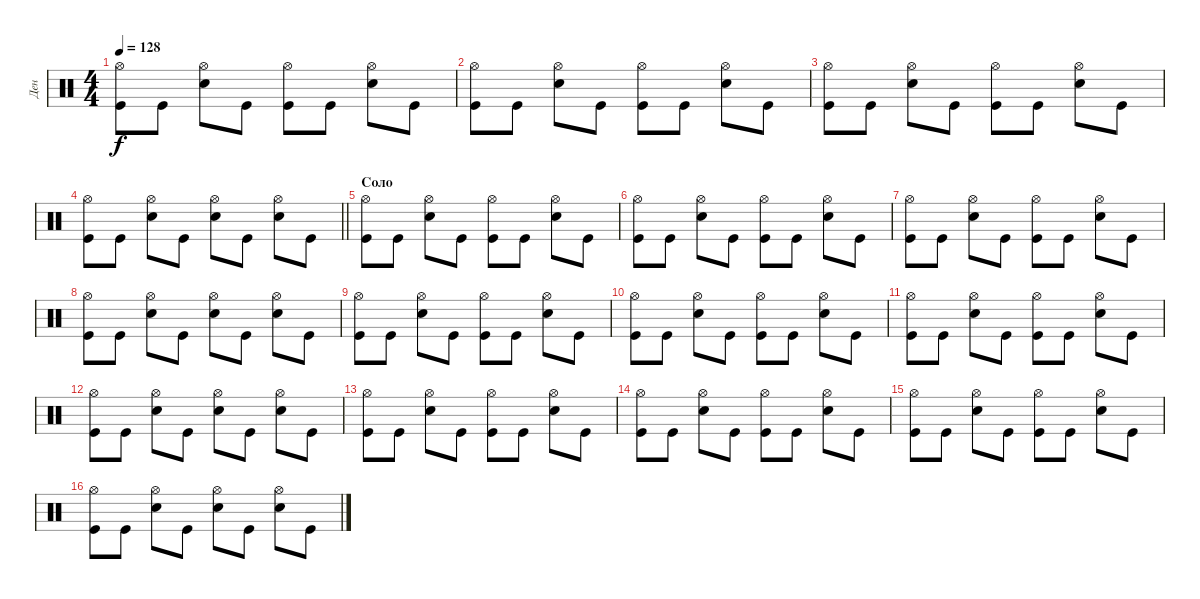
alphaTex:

\track ("Ден" "Ден") {instrument percussion}
\staff
\articulation defaults
\ts (4 4)
\tempo 128
\clef neutral
\ks c
("Kick (hit)" "Hi-Hat (open)").8{dy f} "Kick (hit)".8 ("Snare (hit) 2" "Hi-Hat (open)").8 "Kick (hit)".8 ("Kick (hit)" "Hi-Hat (open)").8 "Kick (hit)".8 ("Snare (hit) 2" "Hi-Hat (open)").8 "Kick (hit)".8 |
("Kick (hit)" "Hi-Hat (open)").8 "Kick (hit)".8 ("Snare (hit) 2" "Hi-Hat (open)").8 "Kick (hit)".8 ("Kick (hit)" "Hi-Hat (open)").8 "Kick (hit)".8 ("Snare (hit) 2" "Hi-Hat (open)").8 "Kick (hit)".8 |
("Kick (hit)" "Hi-Hat (open)").8 "Kick (hit)".8 ("Snare (hit) 2" "Hi-Hat (open)").8 "Kick (hit)".8 ("Kick (hit)" "Hi-Hat (open)").8 "Kick (hit)".8 ("Snare (hit) 2" "Hi-Hat (open)").8 "Kick (hit)".8 |
\barLineRight lightlight
("Kick (hit)" "Hi-Hat (open)").8 "Kick (hit)".8 ("Snare (hit) 2" "Hi-Hat (open)").8 "Kick (hit)".8 ("Snare (hit) 2" "Hi-Hat (open)").8 "Kick (hit)".8 ("Snare (hit) 2" "Hi-Hat (open)").8 "Kick (hit)".8 |
\section ("" "Соло")
("Kick (hit)" "Hi-Hat (open)").8 "Kick (hit)".8 ("Snare (hit) 2" "Hi-Hat (open)").8 "Kick (hit)".8 ("Kick (hit)" "Hi-Hat (open)").8 "Kick (hit)".8 ("Snare (hit) 2" "Hi-Hat (open)").8 "Kick (hit)".8 |
("Kick (hit)" "Hi-Hat (open)").8 "Kick (hit)".8 ("Snare (hit) 2" "Hi-Hat (open)").8 "Kick (hit)".8 ("Kick (hit)" "Hi-Hat (open)").8 "Kick (hit)".8 ("Snare (hit) 2" "Hi-Hat (open)").8 "Kick (hit)".8 |
("Kick (hit)" "Hi-Hat (open)").8 "Kick (hit)".8 ("Snare (hit) 2" "Hi-Hat (open)").8 "Kick (hit)".8 ("Kick (hit)" "Hi-Hat (open)").8 "Kick (hit)".8 ("Snare (hit) 2" "Hi-Hat (open)").8 "Kick (hit)".8 |
("Kick (hit)" "Hi-Hat (open)").8 "Kick (hit)".8 ("Snare (hit) 2" "Hi-Hat (open)").8 "Kick (hit)".8 ("Snare (hit) 2" "Hi-Hat (open)").8 "Kick (hit)".8 ("Snare (hit) 2" "Hi-Hat (open)").8 "Kick (hit)".8 |
("Kick (hit)" "Hi-Hat (open)").8 "Kick (hit)".8 ("Snare (hit) 2" "Hi-Hat (open)").8 "Kick (hit)".8 ("Kick (hit)" "Hi-Hat (open)").8 "Kick (hit)".8 ("Snare (hit) 2" "Hi-Hat (open)").8 "Kick (hit)".8 |
("Kick (hit)" "Hi-Hat (open)").8 "Kick (hit)".8 ("Snare (hit) 2" "Hi-Hat (open)").8 "Kick (hit)".8 ("Kick (hit)" "Hi-Hat (open)").8 "Kick (hit)".8 ("Snare (hit) 2" "Hi-Hat (open)").8 "Kick (hit)".8 |
("Kick (hit)" "Hi-Hat (open)").8 "Kick (hit)".8 ("Snare (hit) 2" "Hi-Hat (open)").8 "Kick (hit)".8 ("Kick (hit)" "Hi-Hat (open)").8 "Kick (hit)".8 ("Snare (hit) 2" "Hi-Hat (open)").8 "Kick (hit)".8 |
("Kick (hit)" "Hi-Hat (open)").8 "Kick (hit)".8 ("Snare (hit) 2" "Hi-Hat (open)").8 "Kick (hit)".8 ("Snare (hit) 2" "Hi-Hat (open)").8 "Kick (hit)".8 ("Snare (hit) 2" "Hi-Hat (open)").8 "Kick (hit)".8 |
("Kick (hit)" "Hi-Hat (open)").8 "Kick (hit)".8 ("Snare (hit) 2" "Hi-Hat (open)").8 "Kick (hit)".8 ("Kick (hit)" "Hi-Hat (open)").8 "Kick (hit)".8 ("Snare (hit) 2" "Hi-Hat (open)").8 "Kick (hit)".8 |
("Kick (hit)" "Hi-Hat (open)").8 "Kick (hit)".8 ("Snare (hit) 2" "Hi-Hat (open)").8 "Kick (hit)".8 ("Kick (hit)" "Hi-Hat (open)").8 "Kick (hit)".8 ("Snare (hit) 2" "Hi-Hat (open)").8 "Kick (hit)".8 |
("Kick (hit)" "Hi-Hat (open)").8 "Kick (hit)".8 ("Snare (hit) 2" "Hi-Hat (open)").8 "Kick (hit)".8 ("Kick (hit)" "Hi-Hat (open)").8 "Kick (hit)".8 ("Snare (hit) 2" "Hi-Hat (open)").8 "Kick (hit)".8 |
("Kick (hit)" "Hi-Hat (open)").8 "Kick (hit)".8 ("Snare (hit) 2" "Hi-Hat (open)").8 "Kick (hit)".8 ("Snare (hit) 2" "Hi-Hat (open)").8 "Kick (hit)".8 ("Snare (hit) 2" "Hi-Hat (open)").8 "Kick (hit)".8
